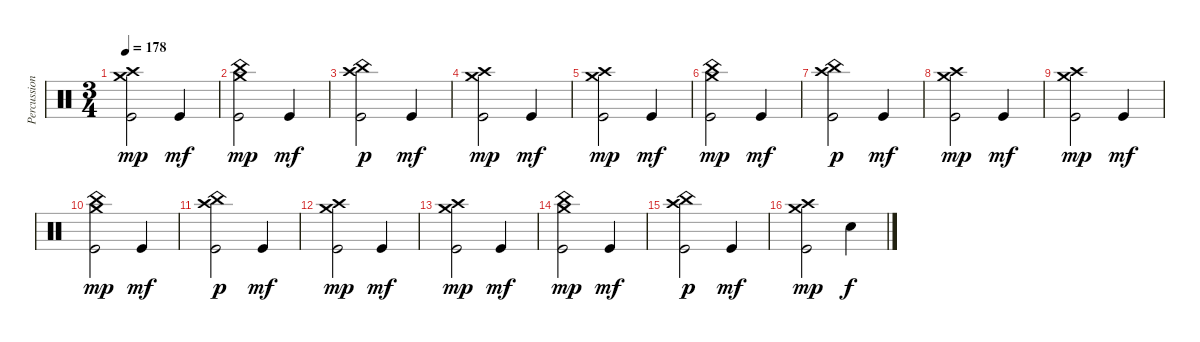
\track ("Percussions" "Percussion") {instrument percussion}
\staff {score}
\articulation defaults
\ts (3 4)
\tempo 178
\clef neutral
\ks c
("Kick (hit)" "Crash high (hit)" "Crash medium (hit)").2{dy mp} "Kick (hit)".4{dy mf} |
("Kick (hit)" "China (hit)" "Crash medium (hit)").2{dy mp} "Kick (hit)".4{dy mf} |
("Kick (hit)" "China (hit)" "Crash high (hit)").2{dy p} "Kick (hit)".4{dy mf} |
("Kick (hit)" "Crash medium (hit)" "Crash high (hit)").2{dy mp} "Kick (hit)".4{dy mf} |
("Kick (hit)" "Crash high (hit)" "Crash medium (hit)").2{dy mp} "Kick (hit)".4{dy mf} |
("Kick (hit)" "China (hit)" "Crash medium (hit)").2{dy mp} "Kick (hit)".4{dy mf} |
("Kick (hit)" "China (hit)" "Crash high (hit)").2{dy p} "Kick (hit)".4{dy mf} |
("Kick (hit)" "Crash medium (hit)" "Crash high (hit)").2{dy mp} "Kick (hit)".4{dy mf} |
("Kick (hit)" "Crash high (hit)" "Crash medium (hit)").2{dy mp} "Kick (hit)".4{dy mf} |
("Kick (hit)" "China (hit)" "Crash medium (hit)").2{dy mp} "Kick (hit)".4{dy mf} |
("Kick (hit)" "China (hit)" "Crash high (hit)").2{dy p} "Kick (hit)".4{dy mf} |
("Kick (hit)" "Crash medium (hit)" "Crash high (hit)").2{dy mp} "Kick (hit)".4{dy mf} |
("Kick (hit)" "Crash high (hit)" "Crash medium (hit)").2{dy mp} "Kick (hit)".4{dy mf} |
("Kick (hit)" "China (hit)" "Crash medium (hit)").2{dy mp} "Kick (hit)".4{dy mf} |
("Kick (hit)" "China (hit)" "Crash high (hit)").2{dy p} "Kick (hit)".4{dy mf} |
("Kick (hit)" "Crash medium (hit)" "Crash high (hit)").2{dy mp} "Electric Snare (hit)".4{dy f}
